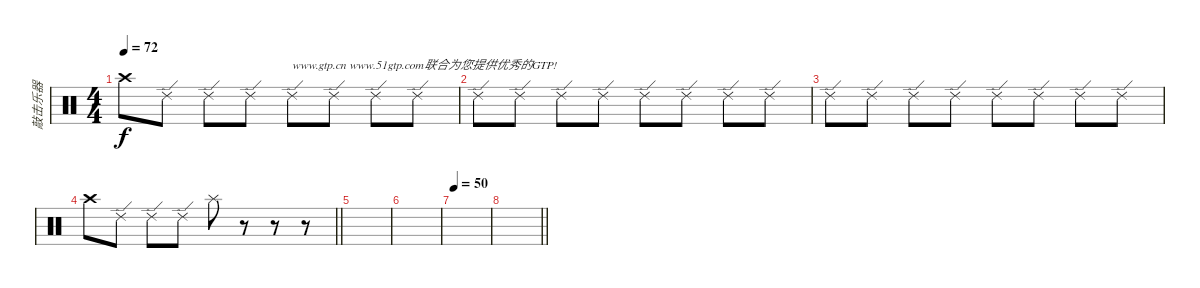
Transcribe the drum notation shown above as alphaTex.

\track ("敲击乐器" "敲击乐器") {instrument percussion}
\staff {score}
\articulation defaults
\ts (4 4)
\tempo 72
\clef neutral
\ks c "Crash high (hit)".8{dy f} "Ride (edge) 2".8 "Ride (edge) 2".8 "Ride (edge) 2".8 "Ride (edge) 2".8{txt "www.gtp.cn www.51gtp.com联合为您提供优秀的GTP!"} "Ride (edge) 2".8 "Ride (edge) 2".8 "Ride (edge) 2".8
|
"Ride (edge) 2".8 "Ride (edge) 2".8 "Ride (edge) 2".8 "Ride (edge) 2".8 "Ride (edge) 2".8 "Ride (edge) 2".8 "Ride (edge) 2".8 "Ride (edge) 2".8 |
"Ride (edge) 2".8 "Ride (edge) 2".8 "Ride (edge) 2".8 "Ride (edge) 2".8 "Ride (edge) 2".8 "Ride (edge) 2".8 "Ride (edge) 2".8 "Ride (edge) 2".8 |
\barLineRight lightlight "Crash high (hit)".8 "Ride (edge) 2".8 "Ride (edge) 2".8 "Ride (edge) 2".8 "Splash (hit)".8
r.8 r.8 r.8 |
|
|
\tempo 50
|
\barLineRight lightlight
